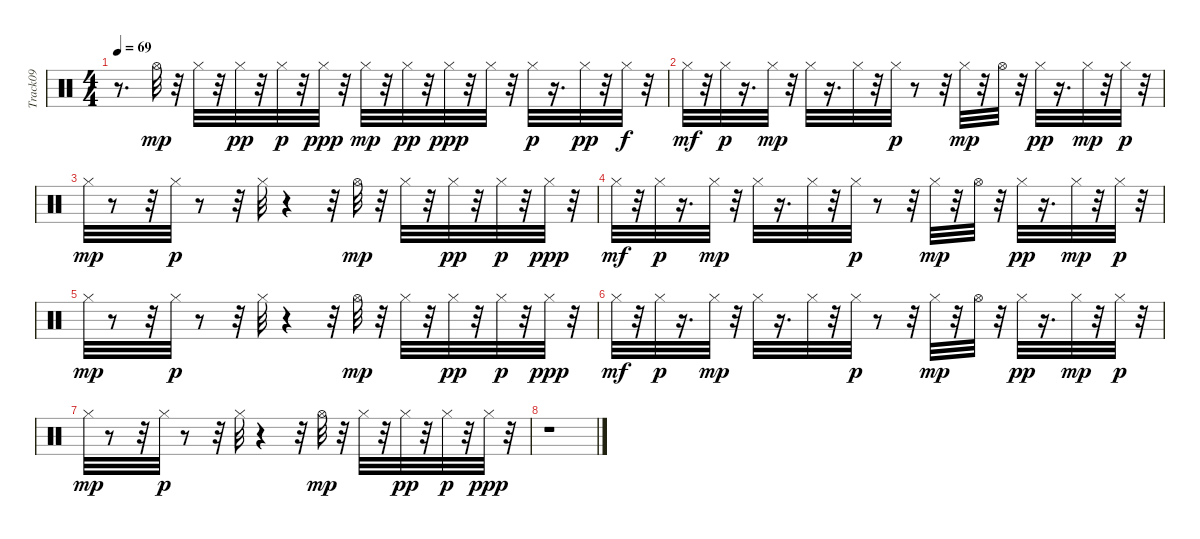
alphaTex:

\track ("Track09" "Track09") {instrument percussion}
\staff {score}
\articulation defaults
\ts (4 4)
\tempo 69
\clef neutral
\ks c
r.8{d dy p} "Hi-Hat (open)".32{dy mp} r.32 "Hi-Hat (closed)".32 r.32 "Hi-Hat (closed)".32{dy pp} r.32 "Hi-Hat (closed)".32{dy p} r.32 "Hi-Hat (closed)".32{dy ppp} r.32 "Hi-Hat (closed)".32{dy mp} r.32 "Hi-Hat (closed)".32{dy pp} r.32 "Hi-Hat (closed)".32{dy ppp} r.32 "Hi-Hat (closed)".32 r.32 "Hi-Hat (closed)".32{dy p} r.16{d} "Hi-Hat (closed)".32{dy pp} r.32 "Hi-Hat (closed)".32{dy f} r.32 |
"Hi-Hat (closed)".32{dy mf} r.32 "Hi-Hat (closed)".32{dy p} r.16{d} "Hi-Hat (closed)".32{dy mp} r.32 "Hi-Hat (closed)".32 r.16{d} "Hi-Hat (closed)".32 r.32 "Hi-Hat (closed)".32{dy p} r.8 r.32 "Hi-Hat (closed)".32{dy mp} r.32 "Hi-Hat (open)".32 r.32 "Hi-Hat (closed)".32{dy pp} r.16{d} "Hi-Hat (closed)".32{dy mp} r.32 "Hi-Hat (closed)".32{dy p} r.32 |
"Hi-Hat (closed)".32{dy mp} r.8 r.32 "Hi-Hat (closed)".32{dy p} r.8 r.32 "Hi-Hat (closed)".32 r.4 r.32 "Hi-Hat (open)".32{dy mp} r.32 "Hi-Hat (closed)".32 r.32 "Hi-Hat (closed)".32{dy pp} r.32 "Hi-Hat (closed)".32{dy p} r.32 "Hi-Hat (closed)".32{dy ppp} r.32 |
"Hi-Hat (closed)".32{dy mf} r.32 "Hi-Hat (closed)".32{dy p} r.16{d} "Hi-Hat (closed)".32{dy mp} r.32 "Hi-Hat (closed)".32 r.16{d} "Hi-Hat (closed)".32 r.32 "Hi-Hat (closed)".32{dy p} r.8 r.32 "Hi-Hat (closed)".32{dy mp} r.32 "Hi-Hat (open)".32 r.32 "Hi-Hat (closed)".32{dy pp} r.16{d} "Hi-Hat (closed)".32{dy mp} r.32 "Hi-Hat (closed)".32{dy p} r.32 |
"Hi-Hat (closed)".32{dy mp} r.8 r.32 "Hi-Hat (closed)".32{dy p} r.8 r.32 "Hi-Hat (closed)".32 r.4 r.32 "Hi-Hat (open)".32{dy mp} r.32 "Hi-Hat (closed)".32 r.32 "Hi-Hat (closed)".32{dy pp} r.32 "Hi-Hat (closed)".32{dy p} r.32 "Hi-Hat (closed)".32{dy ppp} r.32 |
"Hi-Hat (closed)".32{dy mf} r.32 "Hi-Hat (closed)".32{dy p} r.16{d} "Hi-Hat (closed)".32{dy mp} r.32 "Hi-Hat (closed)".32 r.16{d} "Hi-Hat (closed)".32 r.32 "Hi-Hat (closed)".32{dy p} r.8 r.32 "Hi-Hat (closed)".32{dy mp} r.32 "Hi-Hat (open)".32 r.32 "Hi-Hat (closed)".32{dy pp} r.16{d} "Hi-Hat (closed)".32{dy mp} r.32 "Hi-Hat (closed)".32{dy p} r.32 |
"Hi-Hat (closed)".32{dy mp} r.8 r.32 "Hi-Hat (closed)".32{dy p} r.8 r.32 "Hi-Hat (closed)".32 r.4 r.32 "Hi-Hat (open)".32{dy mp} r.32 "Hi-Hat (closed)".32 r.32 "Hi-Hat (closed)".32{dy pp} r.32 "Hi-Hat (closed)".32{dy p} r.32 "Hi-Hat (closed)".32{dy ppp} r.32 |
r.1
